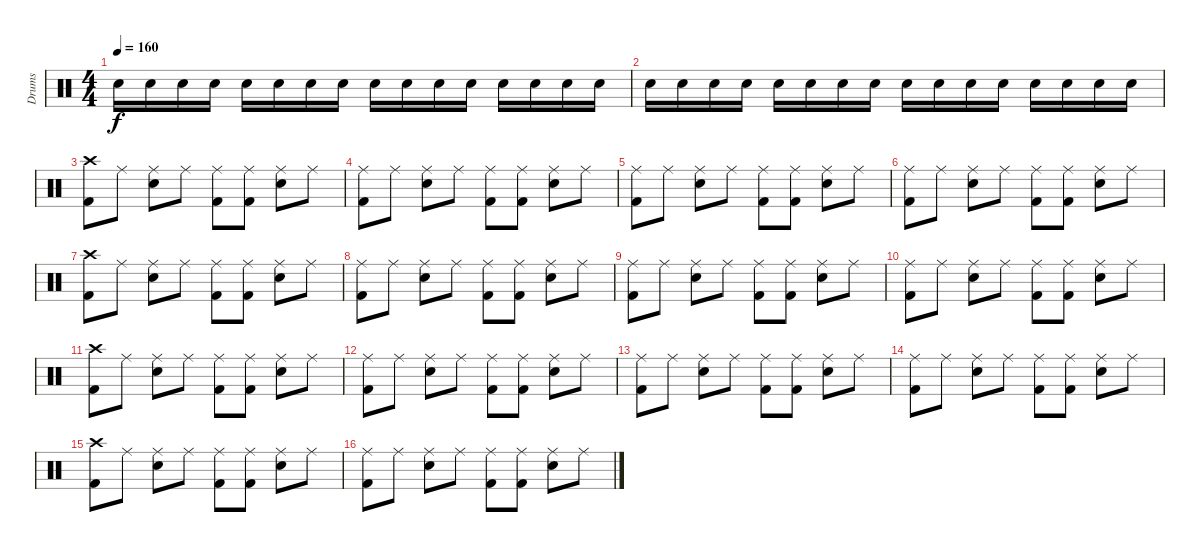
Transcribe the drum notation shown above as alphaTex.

\track ("Drums" "Drums") {instrument percussion}
\staff {score}
\articulation defaults
\ts (4 4)
\tempo 160
\clef neutral
\ks c "Electric Snare (hit)".16{dy f} "Electric Snare (hit)".16 "Electric Snare (hit)".16 "Electric Snare (hit)".16 "Electric Snare (hit)".16 "Electric Snare (hit)".16 "Electric Snare (hit)".16 "Electric Snare (hit)".16 "Electric Snare (hit)".16 "Electric Snare (hit)".16 "Electric Snare (hit)".16 "Electric Snare (hit)".16 "Electric Snare (hit)".16 "Electric Snare (hit)".16 "Electric Snare (hit)".16 "Electric Snare (hit)".16
|
"Electric Snare (hit)".16 "Electric Snare (hit)".16 "Electric Snare (hit)".16 "Electric Snare (hit)".16 "Electric Snare (hit)".16 "Electric Snare (hit)".16 "Electric Snare (hit)".16 "Electric Snare (hit)".16 "Electric Snare (hit)".16 "Electric Snare (hit)".16 "Electric Snare (hit)".16 "Electric Snare (hit)".16 "Electric Snare (hit)".16 "Electric Snare (hit)".16 "Electric Snare (hit)".16 "Electric Snare (hit)".16 |
("Crash high (hit)" "Kick (hit) 2").8 "Ride (middle)".8 ("Ride (middle)" "Electric Snare (hit)").8 "Ride (middle)".8 ("Ride (middle)" "Kick (hit) 2").8 ("Ride (middle)" "Kick (hit) 2").8 ("Ride (middle)" "Electric Snare (hit)").8 "Ride (middle)".8 |
("Ride (middle)" "Kick (hit) 2").8 "Ride (middle)".8 ("Ride (middle)" "Electric Snare (hit)").8 "Ride (middle)".8 ("Ride (middle)" "Kick (hit) 2").8 ("Ride (middle)" "Kick (hit) 2").8 ("Ride (middle)" "Electric Snare (hit)").8 "Ride (middle)".8 |
("Ride (middle)" "Kick (hit) 2").8 "Ride (middle)".8 ("Ride (middle)" "Electric Snare (hit)").8 "Ride (middle)".8 ("Ride (middle)" "Kick (hit) 2").8 ("Ride (middle)" "Kick (hit) 2").8 ("Ride (middle)" "Electric Snare (hit)").8 "Ride (middle)".8 |
("Ride (middle)" "Kick (hit) 2").8 "Ride (middle)".8 ("Ride (middle)" "Electric Snare (hit)").8 "Ride (middle)".8 ("Ride (middle)" "Kick (hit) 2").8 ("Ride (middle)" "Kick (hit) 2").8 ("Ride (middle)" "Electric Snare (hit)").8 "Ride (middle)".8 |
("Crash high (hit)" "Kick (hit) 2").8 "Ride (middle)".8 ("Ride (middle)" "Electric Snare (hit)").8 "Ride (middle)".8 ("Ride (middle)" "Kick (hit) 2").8 ("Ride (middle)" "Kick (hit) 2").8 ("Ride (middle)" "Electric Snare (hit)").8 "Ride (middle)".8 |
("Ride (middle)" "Kick (hit) 2").8 "Ride (middle)".8 ("Ride (middle)" "Electric Snare (hit)").8 "Ride (middle)".8 ("Ride (middle)" "Kick (hit) 2").8 ("Ride (middle)" "Kick (hit) 2").8 ("Ride (middle)" "Electric Snare (hit)").8 "Ride (middle)".8 |
("Ride (middle)" "Kick (hit) 2").8 "Ride (middle)".8 ("Ride (middle)" "Electric Snare (hit)").8 "Ride (middle)".8 ("Ride (middle)" "Kick (hit) 2").8 ("Ride (middle)" "Kick (hit) 2").8 ("Ride (middle)" "Electric Snare (hit)").8 "Ride (middle)".8 |
("Ride (middle)" "Kick (hit) 2").8 "Ride (middle)".8 ("Ride (middle)" "Electric Snare (hit)").8 "Ride (middle)".8 ("Ride (middle)" "Kick (hit) 2").8 ("Ride (middle)" "Kick (hit) 2").8 ("Ride (middle)" "Electric Snare (hit)").8 "Ride (middle)".8 |
("Crash high (hit)" "Kick (hit) 2").8 "Ride (middle)".8 ("Ride (middle)" "Electric Snare (hit)").8 "Ride (middle)".8 ("Ride (middle)" "Kick (hit) 2").8 ("Ride (middle)" "Kick (hit) 2").8 ("Ride (middle)" "Electric Snare (hit)").8 "Ride (middle)".8 |
("Ride (middle)" "Kick (hit) 2").8 "Ride (middle)".8 ("Ride (middle)" "Electric Snare (hit)").8 "Ride (middle)".8 ("Ride (middle)" "Kick (hit) 2").8 ("Ride (middle)" "Kick (hit) 2").8 ("Ride (middle)" "Electric Snare (hit)").8 "Ride (middle)".8 |
("Ride (middle)" "Kick (hit) 2").8 "Ride (middle)".8 ("Ride (middle)" "Electric Snare (hit)").8 "Ride (middle)".8 ("Ride (middle)" "Kick (hit) 2").8 ("Ride (middle)" "Kick (hit) 2").8 ("Ride (middle)" "Electric Snare (hit)").8 "Ride (middle)".8 |
("Ride (middle)" "Kick (hit) 2").8 "Ride (middle)".8 ("Ride (middle)" "Electric Snare (hit)").8 "Ride (middle)".8 ("Ride (middle)" "Kick (hit) 2").8 ("Ride (middle)" "Kick (hit) 2").8 ("Ride (middle)" "Electric Snare (hit)").8 "Ride (middle)".8 |
("Crash high (hit)" "Kick (hit) 2").8 "Ride (middle)".8 ("Ride (middle)" "Electric Snare (hit)").8 "Ride (middle)".8 ("Ride (middle)" "Kick (hit) 2").8 ("Ride (middle)" "Kick (hit) 2").8 ("Ride (middle)" "Electric Snare (hit)").8 "Ride (middle)".8 |
("Ride (middle)" "Kick (hit) 2").8 "Ride (middle)".8 ("Ride (middle)" "Electric Snare (hit)").8 "Ride (middle)".8 ("Ride (middle)" "Kick (hit) 2").8 ("Ride (middle)" "Kick (hit) 2").8 ("Ride (middle)" "Electric Snare (hit)").8 "Ride (middle)".8
